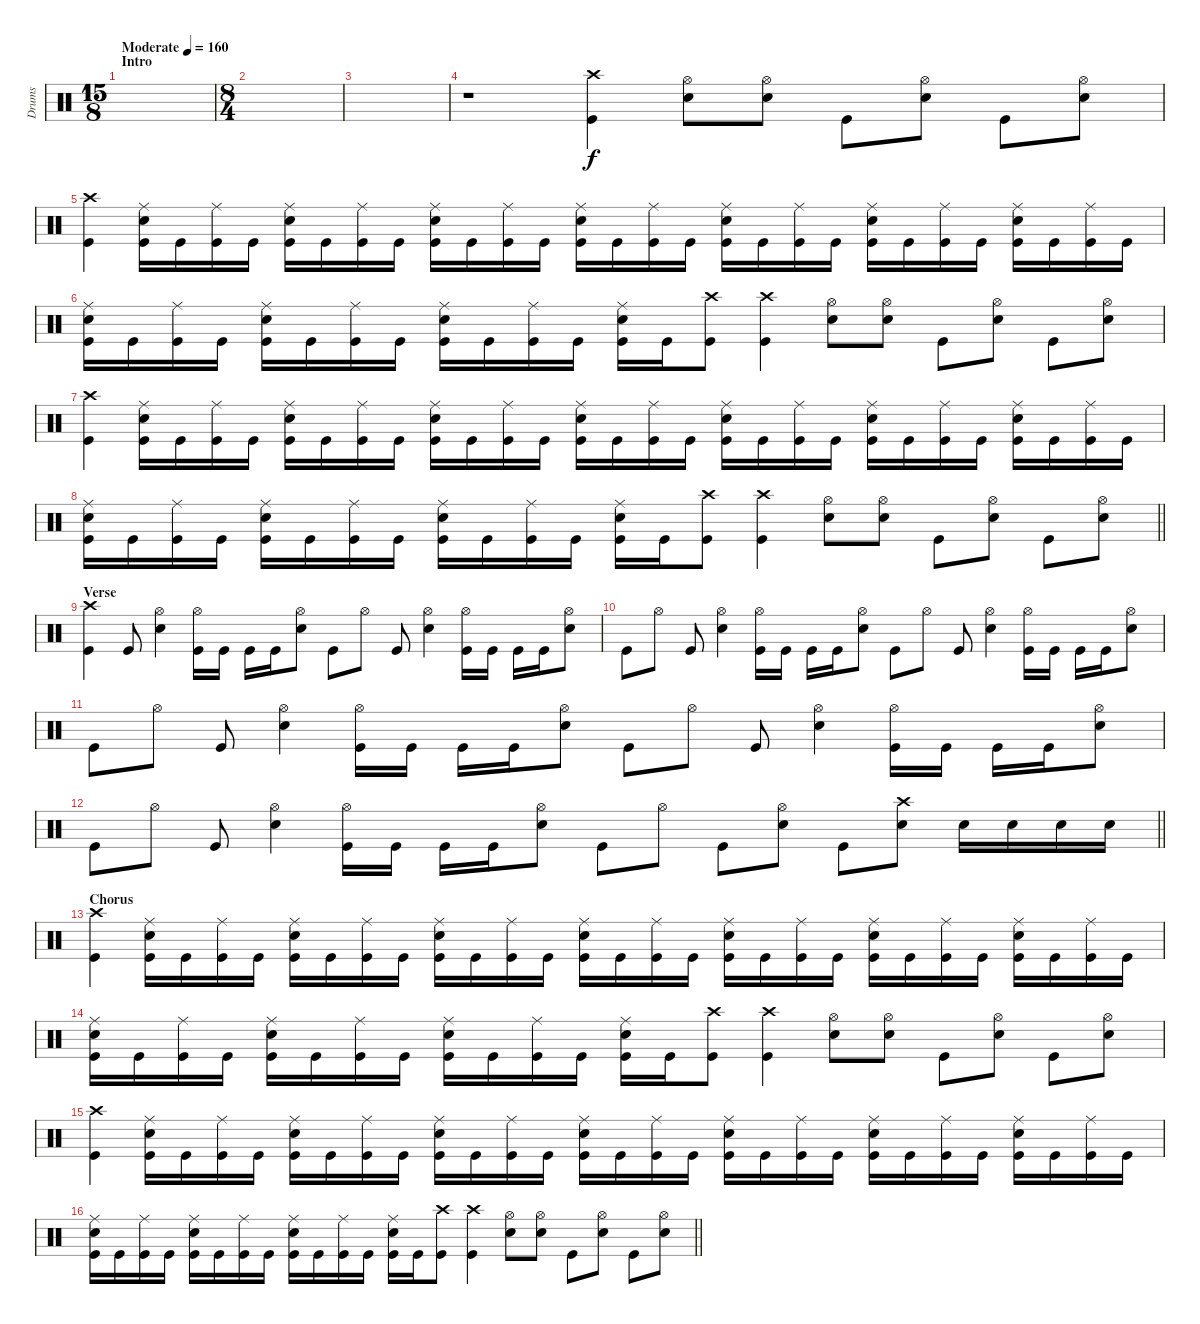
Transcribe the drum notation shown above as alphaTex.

\track ("Drums" "Drums") {instrument percussion}
\staff {score}
\articulation defaults
\ts (15 8)
\section ("" "Intro")
\tempo (160 "Moderate")
\clef neutral
\ks c
|
\ts (8 4)
|
|
r.1 ("Crash high (hit)" "Kick (hit)").4 ("Hi-Hat (open)" "Snare (hit) 2").8 ("Hi-Hat (open)" "Snare (hit) 2").8 "Kick (hit)".8 ("Hi-Hat (open)" "Snare (hit) 2").8 "Kick (hit)".8 ("Hi-Hat (open)" "Snare (hit) 2").8 |
("Crash high (hit)" "Kick (hit)").4 ("Ride (middle)" "Snare (hit) 2" "Kick (hit)").16 "Kick (hit)".16 ("Ride (middle)" "Kick (hit)").16 "Kick (hit)".16 ("Ride (middle)" "Snare (hit) 2" "Kick (hit)").16 "Kick (hit)".16 ("Ride (middle)" "Kick (hit)").16 "Kick (hit)".16 ("Ride (middle)" "Snare (hit) 2" "Kick (hit)").16 "Kick (hit)".16 ("Ride (middle)" "Kick (hit)").16 "Kick (hit)".16 ("Ride (middle)" "Snare (hit) 2" "Kick (hit)").16 "Kick (hit)".16 ("Ride (middle)" "Kick (hit)").16 "Kick (hit)".16 ("Ride (middle)" "Snare (hit) 2" "Kick (hit)").16 "Kick (hit)".16 ("Ride (middle)" "Kick (hit)").16 "Kick (hit)".16 ("Ride (middle)" "Snare (hit) 2" "Kick (hit)").16 "Kick (hit)".16 ("Ride (middle)" "Kick (hit)").16 "Kick (hit)".16 ("Ride (middle)" "Snare (hit) 2" "Kick (hit)").16 "Kick (hit)".16 ("Ride (middle)" "Kick (hit)").16 "Kick (hit)".16 |
("Ride (middle)" "Snare (hit) 2" "Kick (hit)").16 "Kick (hit)".16 ("Ride (middle)" "Kick (hit)").16 "Kick (hit)".16 ("Ride (middle)" "Snare (hit) 2" "Kick (hit)").16 "Kick (hit)".16 ("Ride (middle)" "Kick (hit)").16 "Kick (hit)".16 ("Ride (middle)" "Snare (hit) 2" "Kick (hit)").16 "Kick (hit)".16 ("Ride (middle)" "Kick (hit)").16 "Kick (hit)".16 ("Ride (middle)" "Snare (hit) 2" "Kick (hit)").16 "Kick (hit)".16 ("Crash high (hit)" "Kick (hit)").8 ("Crash high (hit)" "Kick (hit)").4 ("Hi-Hat (open)" "Snare (hit) 2").8 ("Hi-Hat (open)" "Snare (hit) 2").8 "Kick (hit)".8 ("Hi-Hat (open)" "Snare (hit) 2").8 "Kick (hit)".8 ("Hi-Hat (open)" "Snare (hit) 2").8 |
("Crash high (hit)" "Kick (hit)").4 ("Ride (middle)" "Snare (hit) 2" "Kick (hit)").16 "Kick (hit)".16 ("Ride (middle)" "Kick (hit)").16 "Kick (hit)".16 ("Ride (middle)" "Snare (hit) 2" "Kick (hit)").16 "Kick (hit)".16 ("Ride (middle)" "Kick (hit)").16 "Kick (hit)".16 ("Ride (middle)" "Snare (hit) 2" "Kick (hit)").16 "Kick (hit)".16 ("Ride (middle)" "Kick (hit)").16 "Kick (hit)".16 ("Ride (middle)" "Snare (hit) 2" "Kick (hit)").16 "Kick (hit)".16 ("Ride (middle)" "Kick (hit)").16 "Kick (hit)".16 ("Ride (middle)" "Snare (hit) 2" "Kick (hit)").16 "Kick (hit)".16 ("Ride (middle)" "Kick (hit)").16 "Kick (hit)".16 ("Ride (middle)" "Snare (hit) 2" "Kick (hit)").16 "Kick (hit)".16 ("Ride (middle)" "Kick (hit)").16 "Kick (hit)".16 ("Ride (middle)" "Snare (hit) 2" "Kick (hit)").16 "Kick (hit)".16 ("Ride (middle)" "Kick (hit)").16 "Kick (hit)".16 |
\barLineRight lightlight
("Ride (middle)" "Snare (hit) 2" "Kick (hit)").16 "Kick (hit)".16 ("Ride (middle)" "Kick (hit)").16 "Kick (hit)".16 ("Ride (middle)" "Snare (hit) 2" "Kick (hit)").16 "Kick (hit)".16 ("Ride (middle)" "Kick (hit)").16 "Kick (hit)".16 ("Ride (middle)" "Snare (hit) 2" "Kick (hit)").16 "Kick (hit)".16 ("Ride (middle)" "Kick (hit)").16 "Kick (hit)".16 ("Ride (middle)" "Snare (hit) 2" "Kick (hit)").16 "Kick (hit)".16 ("Crash high (hit)" "Kick (hit)").8 ("Crash high (hit)" "Kick (hit)").4 ("Hi-Hat (open)" "Snare (hit) 2").8 ("Hi-Hat (open)" "Snare (hit) 2").8 "Kick (hit)".8 ("Hi-Hat (open)" "Snare (hit) 2").8 "Kick (hit)".8 ("Hi-Hat (open)" "Snare (hit) 2").8 |
\section ("" "Verse")
("Crash high (hit)" "Kick (hit)").4 "Kick (hit)".8 ("Hi-Hat (open)" "Snare (hit) 2").4 ("Hi-Hat (open)" "Kick (hit)").16 "Kick (hit)".16 "Kick (hit)".16 "Kick (hit)".16 ("Hi-Hat (open)" "Snare (hit) 2").8 "Kick (hit)".8 "Hi-Hat (open)".8 "Kick (hit)".8 ("Hi-Hat (open)" "Snare (hit) 2").4 ("Hi-Hat (open)" "Kick (hit)").16 "Kick (hit)".16 "Kick (hit)".16 "Kick (hit)".16 ("Hi-Hat (open)" "Snare (hit) 2").8 |
"Kick (hit)".8 "Hi-Hat (open)".8 "Kick (hit)".8 ("Hi-Hat (open)" "Snare (hit) 2").4 ("Hi-Hat (open)" "Kick (hit)").16 "Kick (hit)".16 "Kick (hit)".16 "Kick (hit)".16 ("Hi-Hat (open)" "Snare (hit) 2").8 "Kick (hit)".8 "Hi-Hat (open)".8 "Kick (hit)".8 ("Hi-Hat (open)" "Snare (hit) 2").4 ("Hi-Hat (open)" "Kick (hit)").16 "Kick (hit)".16 "Kick (hit)".16 "Kick (hit)".16 ("Hi-Hat (open)" "Snare (hit) 2").8 |
"Kick (hit)".8 "Hi-Hat (open)".8 "Kick (hit)".8 ("Hi-Hat (open)" "Snare (hit) 2").4 ("Hi-Hat (open)" "Kick (hit)").16 "Kick (hit)".16 "Kick (hit)".16 "Kick (hit)".16 ("Hi-Hat (open)" "Snare (hit) 2").8 "Kick (hit)".8 "Hi-Hat (open)".8 "Kick (hit)".8 ("Hi-Hat (open)" "Snare (hit) 2").4 ("Hi-Hat (open)" "Kick (hit)").16 "Kick (hit)".16 "Kick (hit)".16 "Kick (hit)".16 ("Hi-Hat (open)" "Snare (hit) 2").8 |
\barLineRight lightlight "Kick (hit)".8 "Hi-Hat (open)".8 "Kick (hit)".8
("Hi-Hat (open)" "Snare (hit) 2").4 ("Hi-Hat (open)" "Kick (hit)").16 "Kick (hit)".16 "Kick (hit)".16 "Kick (hit)".16 ("Hi-Hat (open)" "Snare (hit) 2").8 "Kick (hit)".8 "Hi-Hat (open)".8 "Kick (hit)".8 ("Hi-Hat (open)" "Snare (hit) 2").8 "Kick (hit)".8 ("Crash high (hit)" "Snare (hit) 2").8 "Snare (hit) 2".16 "Snare (hit) 2".16 "Snare (hit) 2".16 "Snare (hit) 2".16 |
\section ("" "Chorus")
("Crash high (hit)" "Kick (hit)").4 ("Ride (middle)" "Snare (hit) 2" "Kick (hit)").16 "Kick (hit)".16 ("Ride (middle)" "Kick (hit)").16 "Kick (hit)".16 ("Ride (middle)" "Snare (hit) 2" "Kick (hit)").16 "Kick (hit)".16 ("Ride (middle)" "Kick (hit)").16 "Kick (hit)".16 ("Ride (middle)" "Snare (hit) 2" "Kick (hit)").16 "Kick (hit)".16 ("Ride (middle)" "Kick (hit)").16 "Kick (hit)".16 ("Ride (middle)" "Snare (hit) 2" "Kick (hit)").16 "Kick (hit)".16 ("Ride (middle)" "Kick (hit)").16 "Kick (hit)".16 ("Ride (middle)" "Snare (hit) 2" "Kick (hit)").16 "Kick (hit)".16 ("Ride (middle)" "Kick (hit)").16 "Kick (hit)".16 ("Ride (middle)" "Snare (hit) 2" "Kick (hit)").16 "Kick (hit)".16 ("Ride (middle)" "Kick (hit)").16 "Kick (hit)".16 ("Ride (middle)" "Snare (hit) 2" "Kick (hit)").16 "Kick (hit)".16 ("Ride (middle)" "Kick (hit)").16 "Kick (hit)".16 |
("Ride (middle)" "Snare (hit) 2" "Kick (hit)").16 "Kick (hit)".16 ("Ride (middle)" "Kick (hit)").16 "Kick (hit)".16 ("Ride (middle)" "Snare (hit) 2" "Kick (hit)").16 "Kick (hit)".16 ("Ride (middle)" "Kick (hit)").16 "Kick (hit)".16 ("Ride (middle)" "Snare (hit) 2" "Kick (hit)").16 "Kick (hit)".16 ("Ride (middle)" "Kick (hit)").16 "Kick (hit)".16 ("Ride (middle)" "Snare (hit) 2" "Kick (hit)").16 "Kick (hit)".16 ("Crash high (hit)" "Kick (hit)").8 ("Crash high (hit)" "Kick (hit)").4 ("Hi-Hat (open)" "Snare (hit) 2").8 ("Hi-Hat (open)" "Snare (hit) 2").8 "Kick (hit)".8 ("Hi-Hat (open)" "Snare (hit) 2").8 "Kick (hit)".8 ("Hi-Hat (open)" "Snare (hit) 2").8 |
("Crash high (hit)" "Kick (hit)").4 ("Ride (middle)" "Snare (hit) 2" "Kick (hit)").16 "Kick (hit)".16 ("Ride (middle)" "Kick (hit)").16 "Kick (hit)".16 ("Ride (middle)" "Snare (hit) 2" "Kick (hit)").16 "Kick (hit)".16 ("Ride (middle)" "Kick (hit)").16 "Kick (hit)".16 ("Ride (middle)" "Snare (hit) 2" "Kick (hit)").16 "Kick (hit)".16 ("Ride (middle)" "Kick (hit)").16 "Kick (hit)".16 ("Ride (middle)" "Snare (hit) 2" "Kick (hit)").16 "Kick (hit)".16 ("Ride (middle)" "Kick (hit)").16 "Kick (hit)".16 ("Ride (middle)" "Snare (hit) 2" "Kick (hit)").16 "Kick (hit)".16 ("Ride (middle)" "Kick (hit)").16 "Kick (hit)".16 ("Ride (middle)" "Snare (hit) 2" "Kick (hit)").16 "Kick (hit)".16 ("Ride (middle)" "Kick (hit)").16 "Kick (hit)".16 ("Ride (middle)" "Snare (hit) 2" "Kick (hit)").16 "Kick (hit)".16 ("Ride (middle)" "Kick (hit)").16 "Kick (hit)".16 |
\barLineRight lightlight
("Ride (middle)" "Snare (hit) 2" "Kick (hit)").16 "Kick (hit)".16 ("Ride (middle)" "Kick (hit)").16 "Kick (hit)".16 ("Ride (middle)" "Snare (hit) 2" "Kick (hit)").16 "Kick (hit)".16 ("Ride (middle)" "Kick (hit)").16 "Kick (hit)".16 ("Ride (middle)" "Snare (hit) 2" "Kick (hit)").16 "Kick (hit)".16 ("Ride (middle)" "Kick (hit)").16 "Kick (hit)".16 ("Ride (middle)" "Snare (hit) 2" "Kick (hit)").16 "Kick (hit)".16 ("Crash high (hit)" "Kick (hit)").8 ("Crash high (hit)" "Kick (hit)").4 ("Hi-Hat (open)" "Snare (hit) 2").8 ("Hi-Hat (open)" "Snare (hit) 2").8 "Kick (hit)".8 ("Hi-Hat (open)" "Snare (hit) 2").8 "Kick (hit)".8 ("Hi-Hat (open)" "Snare (hit) 2").8
